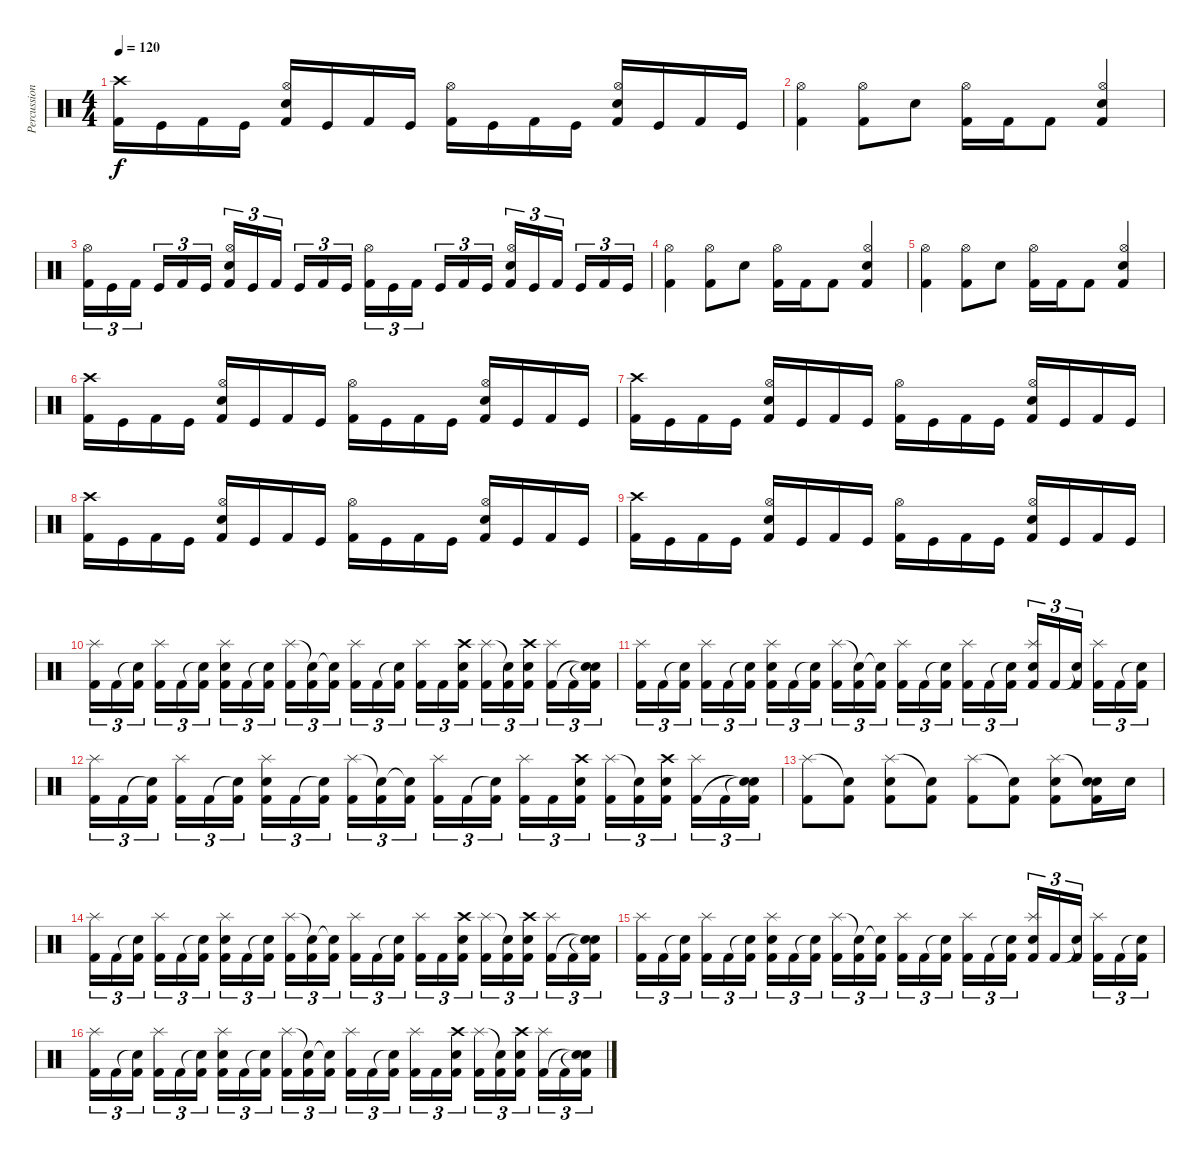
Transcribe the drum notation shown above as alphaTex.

\track ("Percussion" "Percussion") {instrument percussion}
\staff {score}
\articulation defaults
\ts (4 4)
\tempo 120
\clef neutral
\ks c
("Crash high (hit)" "Kick (hit) 2").16{dy f} "Kick (hit)".16 "Kick (hit) 2".16 "Kick (hit)".16 ("Hi-Hat (open)" "Electric Snare (hit)" "Kick (hit) 2").16 "Kick (hit)".16 "Kick (hit) 2".16 "Kick (hit)".16 ("Hi-Hat (open)" "Kick (hit) 2").16 "Kick (hit)".16 "Kick (hit) 2".16 "Kick (hit)".16 ("Hi-Hat (open)" "Electric Snare (hit)" "Kick (hit) 2").16 "Kick (hit)".16 "Kick (hit) 2".16 "Kick (hit)".16 |
("Hi-Hat (open)" "Kick (hit) 2").4 ("Hi-Hat (open)" "Kick (hit) 2").8 "Electric Snare (hit)".8 ("Hi-Hat (open)" "Kick (hit) 2").16 "Kick (hit) 2".16 "Kick (hit) 2".8 ("Hi-Hat (open)" "Electric Snare (hit)" "Kick (hit) 2").4 |
("Hi-Hat (open)" "Kick (hit) 2").16{tu (3 2)} "Kick (hit)".16{tu (3 2)} "Kick (hit) 2".16{tu (3 2) beam splitsecondary} "Kick (hit)".16{tu (3 2)} "Kick (hit) 2".16{tu (3 2)} "Kick (hit)".16{tu (3 2)} ("Hi-Hat (open)" "Electric Snare (hit)" "Kick (hit) 2").16{tu (3 2)} "Kick (hit)".16{tu (3 2)} "Kick (hit) 2".16{tu (3 2) beam splitsecondary} "Kick (hit)".16{tu (3 2)} "Kick (hit) 2".16{tu (3 2)} "Kick (hit)".16{tu (3 2)} ("Hi-Hat (open)" "Kick (hit) 2").16{tu (3 2)} "Kick (hit)".16{tu (3 2)} "Kick (hit) 2".16{tu (3 2) beam splitsecondary} "Kick (hit)".16{tu (3 2)} "Kick (hit) 2".16{tu (3 2)} "Kick (hit)".16{tu (3 2)} ("Hi-Hat (open)" "Electric Snare (hit)" "Kick (hit) 2").16{tu (3 2)} "Kick (hit)".16{tu (3 2)} "Kick (hit) 2".16{tu (3 2) beam splitsecondary} "Kick (hit)".16{tu (3 2)} "Kick (hit) 2".16{tu (3 2)} "Kick (hit)".16{tu (3 2)} |
("Hi-Hat (open)" "Kick (hit) 2").4 ("Hi-Hat (open)" "Kick (hit) 2").8 "Electric Snare (hit)".8 ("Hi-Hat (open)" "Kick (hit) 2").16 "Kick (hit) 2".16 "Kick (hit) 2".8 ("Hi-Hat (open)" "Electric Snare (hit)" "Kick (hit) 2").4 |
("Hi-Hat (open)" "Kick (hit) 2").4 ("Hi-Hat (open)" "Kick (hit) 2").8 "Electric Snare (hit)".8 ("Hi-Hat (open)" "Kick (hit) 2").16 "Kick (hit) 2".16 "Kick (hit) 2".8 ("Hi-Hat (open)" "Electric Snare (hit)" "Kick (hit) 2").4 |
("Crash high (hit)" "Kick (hit) 2").16 "Kick (hit)".16 "Kick (hit) 2".16 "Kick (hit)".16 ("Hi-Hat (open)" "Electric Snare (hit)" "Kick (hit) 2").16 "Kick (hit)".16 "Kick (hit) 2".16 "Kick (hit)".16 ("Hi-Hat (open)" "Kick (hit) 2").16 "Kick (hit)".16 "Kick (hit) 2".16 "Kick (hit)".16 ("Hi-Hat (open)" "Electric Snare (hit)" "Kick (hit) 2").16 "Kick (hit)".16 "Kick (hit) 2".16 "Kick (hit)".16 |
("Crash high (hit)" "Kick (hit) 2").16 "Kick (hit)".16 "Kick (hit) 2".16 "Kick (hit)".16 ("Hi-Hat (open)" "Electric Snare (hit)" "Kick (hit) 2").16 "Kick (hit)".16 "Kick (hit) 2".16 "Kick (hit)".16 ("Hi-Hat (open)" "Kick (hit) 2").16 "Kick (hit)".16 "Kick (hit) 2".16 "Kick (hit)".16 ("Hi-Hat (open)" "Electric Snare (hit)" "Kick (hit) 2").16 "Kick (hit)".16 "Kick (hit) 2".16 "Kick (hit)".16 |
("Crash high (hit)" "Kick (hit) 2").16 "Kick (hit)".16 "Kick (hit) 2".16 "Kick (hit)".16 ("Hi-Hat (open)" "Electric Snare (hit)" "Kick (hit) 2").16 "Kick (hit)".16 "Kick (hit) 2".16 "Kick (hit)".16 ("Hi-Hat (open)" "Kick (hit) 2").16 "Kick (hit)".16 "Kick (hit) 2".16 "Kick (hit)".16 ("Hi-Hat (open)" "Electric Snare (hit)" "Kick (hit) 2").16 "Kick (hit)".16 "Kick (hit) 2".16 "Kick (hit)".16 |
("Crash high (hit)" "Kick (hit) 2").16 "Kick (hit)".16 "Kick (hit) 2".16 "Kick (hit)".16 ("Hi-Hat (open)" "Electric Snare (hit)" "Kick (hit) 2").16 "Kick (hit)".16 "Kick (hit) 2".16 "Kick (hit)".16 ("Hi-Hat (open)" "Kick (hit) 2").16 "Kick (hit)".16 "Kick (hit) 2".16 "Kick (hit)".16 ("Hi-Hat (open)" "Electric Snare (hit)" "Kick (hit) 2").16 "Kick (hit)".16 "Kick (hit) 2".16 "Kick (hit)".16 |
("Splash (hit)" "Kick (hit) 2").16{tu (3 2)} "Kick (hit) 2".16{tu (3 2)} ("Snare (hit)"{t} "Kick (hit) 2").16{tu (3 2) beam splitsecondary} ("Splash (hit)" "Kick (hit) 2").16{tu (3 2)} "Kick (hit) 2".16{tu (3 2)} ("Snare (hit)"{t} "Kick (hit) 2").16{tu (3 2)} ("Splash (hit)" "Electric Snare (hit)" "Kick (hit) 2").16{tu (3 2)} "Kick (hit) 2".16{tu (3 2)} ("Snare (hit)"{t} "Kick (hit) 2").16{tu (3 2) beam splitsecondary} ("Splash (hit)" "Kick (hit) 2").16{tu (3 2)} ("Snare (hit)"{t} "Kick (hit) 2").16{tu (3 2)} ("Snare (hit)"{t} "Kick (hit) 2").16{tu (3 2)} ("Splash (hit)" "Kick (hit) 2").16{tu (3 2)} "Kick (hit) 2".16{tu (3 2)} ("Snare (hit)"{t} "Kick (hit) 2").16{tu (3 2) beam splitsecondary} ("Splash (hit)" "Kick (hit) 2").16{tu (3 2)} "Kick (hit) 2".16{tu (3 2)} ("Crash high (hit)" "Snare (hit) 2" "Kick (hit) 2").16{tu (3 2)} ("Splash (hit)" "Kick (hit) 2").16{tu (3 2)} ("Snare (hit)"{t} "Kick (hit) 2").16{tu (3 2)} ("Crash high (hit)" "Snare (hit) 2" "Kick (hit) 2").16{tu (3 2) beam splitsecondary} ("Splash (hit)" "Kick (hit) 2").16{tu (3 2)} "Kick (hit) 2".16{tu (3 2)} ("Snare (hit)"{t} "Snare (hit)"{t} "Kick (hit) 2").16{tu (3 2)} |
("Splash (hit)" "Kick (hit) 2").16{tu (3 2)} "Kick (hit) 2".16{tu (3 2)} ("Snare (hit)"{t} "Kick (hit) 2").16{tu (3 2) beam splitsecondary} ("Splash (hit)" "Kick (hit) 2").16{tu (3 2)} "Kick (hit) 2".16{tu (3 2)} ("Snare (hit)"{t} "Kick (hit) 2").16{tu (3 2)} ("Splash (hit)" "Electric Snare (hit)" "Kick (hit) 2").16{tu (3 2)} "Kick (hit) 2".16{tu (3 2)} ("Snare (hit)"{t} "Kick (hit) 2").16{tu (3 2) beam splitsecondary} ("Splash (hit)" "Kick (hit) 2").16{tu (3 2)} ("Snare (hit)"{t} "Kick (hit) 2").16{tu (3 2)} ("Snare (hit)"{t} "Kick (hit) 2").16{tu (3 2)} ("Splash (hit)" "Kick (hit) 2").16{tu (3 2)} "Kick (hit) 2".16{tu (3 2)} ("Snare (hit)"{t} "Kick (hit) 2").16{tu (3 2) beam splitsecondary} ("Splash (hit)" "Kick (hit) 2").16{tu (3 2)} "Kick (hit) 2".16{tu (3 2)} ("Snare (hit)"{t} "Kick (hit) 2").16{tu (3 2)} ("Splash (hit)" "Snare (hit) 2" "Kick (hit) 2").16{tu (3 2)} "Kick (hit) 2".16{tu (3 2)} ("Snare (hit)"{t} "Kick (hit) 2").16{tu (3 2) beam splitsecondary} ("Splash (hit)" "Kick (hit) 2").16{tu (3 2)} "Kick (hit) 2".16{tu (3 2)} ("Snare (hit)"{t} "Kick (hit) 2").16{tu (3 2)} |
("Splash (hit)" "Kick (hit) 2").16{tu (3 2)} "Kick (hit) 2".16{tu (3 2)} ("Snare (hit)"{t} "Kick (hit) 2").16{tu (3 2) beam splitsecondary} ("Splash (hit)" "Kick (hit) 2").16{tu (3 2)} "Kick (hit) 2".16{tu (3 2)} ("Snare (hit)"{t} "Kick (hit) 2").16{tu (3 2)} ("Splash (hit)" "Electric Snare (hit)" "Kick (hit) 2").16{tu (3 2)} "Kick (hit) 2".16{tu (3 2)} ("Snare (hit)"{t} "Kick (hit) 2").16{tu (3 2) beam splitsecondary} ("Splash (hit)" "Kick (hit) 2").16{tu (3 2)} ("Snare (hit)"{t} "Kick (hit) 2").16{tu (3 2)} ("Snare (hit)"{t} "Kick (hit) 2").16{tu (3 2)} ("Splash (hit)" "Kick (hit) 2").16{tu (3 2)} "Kick (hit) 2".16{tu (3 2)} ("Snare (hit)"{t} "Kick (hit) 2").16{tu (3 2) beam splitsecondary} ("Splash (hit)" "Kick (hit) 2").16{tu (3 2)} "Kick (hit) 2".16{tu (3 2)} ("Crash high (hit)" "Snare (hit) 2" "Kick (hit) 2").16{tu (3 2)} ("Splash (hit)" "Kick (hit) 2").16{tu (3 2)} ("Snare (hit)"{t} "Kick (hit) 2").16{tu (3 2)} ("Crash high (hit)" "Snare (hit) 2" "Kick (hit) 2").16{tu (3 2) beam splitsecondary} ("Splash (hit)" "Kick (hit) 2").16{tu (3 2)} "Kick (hit) 2".16{tu (3 2)} ("Snare (hit)"{t} "Snare (hit)"{t} "Kick (hit) 2").16{tu (3 2)} |
("Splash (hit)" "Kick (hit) 2").8 ("Snare (hit)"{t} "Kick (hit) 2").8 ("Splash (hit)" "Electric Snare (hit)" "Kick (hit) 2").8 ("Snare (hit)"{t} "Kick (hit) 2").8 ("Splash (hit)" "Kick (hit) 2").8 ("Snare (hit)"{t} "Kick (hit) 2").8 ("Splash (hit)" "Electric Snare (hit)" "Kick (hit) 2").8 ("Snare (hit)"{t} "Electric Snare (hit)" "Kick (hit) 2").16 "Electric Snare (hit)".16 |
("Splash (hit)" "Kick (hit) 2").16{tu (3 2)} "Kick (hit) 2".16{tu (3 2)} ("Snare (hit)"{t} "Kick (hit) 2").16{tu (3 2) beam splitsecondary} ("Splash (hit)" "Kick (hit) 2").16{tu (3 2)} "Kick (hit) 2".16{tu (3 2)} ("Snare (hit)"{t} "Kick (hit) 2").16{tu (3 2)} ("Splash (hit)" "Electric Snare (hit)" "Kick (hit) 2").16{tu (3 2)} "Kick (hit) 2".16{tu (3 2)} ("Snare (hit)"{t} "Kick (hit) 2").16{tu (3 2) beam splitsecondary} ("Splash (hit)" "Kick (hit) 2").16{tu (3 2)} ("Snare (hit)"{t} "Kick (hit) 2").16{tu (3 2)} ("Snare (hit)"{t} "Kick (hit) 2").16{tu (3 2)} ("Splash (hit)" "Kick (hit) 2").16{tu (3 2)} "Kick (hit) 2".16{tu (3 2)} ("Snare (hit)"{t} "Kick (hit) 2").16{tu (3 2) beam splitsecondary} ("Splash (hit)" "Kick (hit) 2").16{tu (3 2)} "Kick (hit) 2".16{tu (3 2)} ("Crash high (hit)" "Snare (hit) 2" "Kick (hit) 2").16{tu (3 2)} ("Splash (hit)" "Kick (hit) 2").16{tu (3 2)} ("Snare (hit)"{t} "Kick (hit) 2").16{tu (3 2)} ("Crash high (hit)" "Snare (hit) 2" "Kick (hit) 2").16{tu (3 2) beam splitsecondary} ("Splash (hit)" "Kick (hit) 2").16{tu (3 2)} "Kick (hit) 2".16{tu (3 2)} ("Snare (hit)"{t} "Snare (hit)"{t} "Kick (hit) 2").16{tu (3 2)} |
("Splash (hit)" "Kick (hit) 2").16{tu (3 2)} "Kick (hit) 2".16{tu (3 2)} ("Snare (hit)"{t} "Kick (hit) 2").16{tu (3 2) beam splitsecondary} ("Splash (hit)" "Kick (hit) 2").16{tu (3 2)} "Kick (hit) 2".16{tu (3 2)} ("Snare (hit)"{t} "Kick (hit) 2").16{tu (3 2)} ("Splash (hit)" "Electric Snare (hit)" "Kick (hit) 2").16{tu (3 2)} "Kick (hit) 2".16{tu (3 2)} ("Snare (hit)"{t} "Kick (hit) 2").16{tu (3 2) beam splitsecondary} ("Splash (hit)" "Kick (hit) 2").16{tu (3 2)} ("Snare (hit)"{t} "Kick (hit) 2").16{tu (3 2)} ("Snare (hit)"{t} "Kick (hit) 2").16{tu (3 2)} ("Splash (hit)" "Kick (hit) 2").16{tu (3 2)} "Kick (hit) 2".16{tu (3 2)} ("Snare (hit)"{t} "Kick (hit) 2").16{tu (3 2) beam splitsecondary} ("Splash (hit)" "Kick (hit) 2").16{tu (3 2)} "Kick (hit) 2".16{tu (3 2)} ("Snare (hit)"{t} "Kick (hit) 2").16{tu (3 2)} ("Splash (hit)" "Snare (hit) 2" "Kick (hit) 2").16{tu (3 2)} "Kick (hit) 2".16{tu (3 2)} ("Snare (hit)"{t} "Kick (hit) 2").16{tu (3 2) beam splitsecondary} ("Splash (hit)" "Kick (hit) 2").16{tu (3 2)} "Kick (hit) 2".16{tu (3 2)} ("Snare (hit)"{t} "Kick (hit) 2").16{tu (3 2)} |
("Splash (hit)" "Kick (hit) 2").16{tu (3 2)} "Kick (hit) 2".16{tu (3 2)} ("Snare (hit)"{t} "Kick (hit) 2").16{tu (3 2) beam splitsecondary} ("Splash (hit)" "Kick (hit) 2").16{tu (3 2)} "Kick (hit) 2".16{tu (3 2)} ("Snare (hit)"{t} "Kick (hit) 2").16{tu (3 2)} ("Splash (hit)" "Electric Snare (hit)" "Kick (hit) 2").16{tu (3 2)} "Kick (hit) 2".16{tu (3 2)} ("Snare (hit)"{t} "Kick (hit) 2").16{tu (3 2) beam splitsecondary} ("Splash (hit)" "Kick (hit) 2").16{tu (3 2)} ("Snare (hit)"{t} "Kick (hit) 2").16{tu (3 2)} ("Snare (hit)"{t} "Kick (hit) 2").16{tu (3 2)} ("Splash (hit)" "Kick (hit) 2").16{tu (3 2)} "Kick (hit) 2".16{tu (3 2)} ("Snare (hit)"{t} "Kick (hit) 2").16{tu (3 2) beam splitsecondary} ("Splash (hit)" "Kick (hit) 2").16{tu (3 2)} "Kick (hit) 2".16{tu (3 2)} ("Crash high (hit)" "Snare (hit) 2" "Kick (hit) 2").16{tu (3 2)} ("Splash (hit)" "Kick (hit) 2").16{tu (3 2)} ("Snare (hit)"{t} "Kick (hit) 2").16{tu (3 2)} ("Crash high (hit)" "Snare (hit) 2" "Kick (hit) 2").16{tu (3 2) beam splitsecondary} ("Splash (hit)" "Kick (hit) 2").16{tu (3 2)} "Kick (hit) 2".16{tu (3 2)} ("Snare (hit)"{t} "Snare (hit)"{t} "Kick (hit) 2").16{tu (3 2)}
